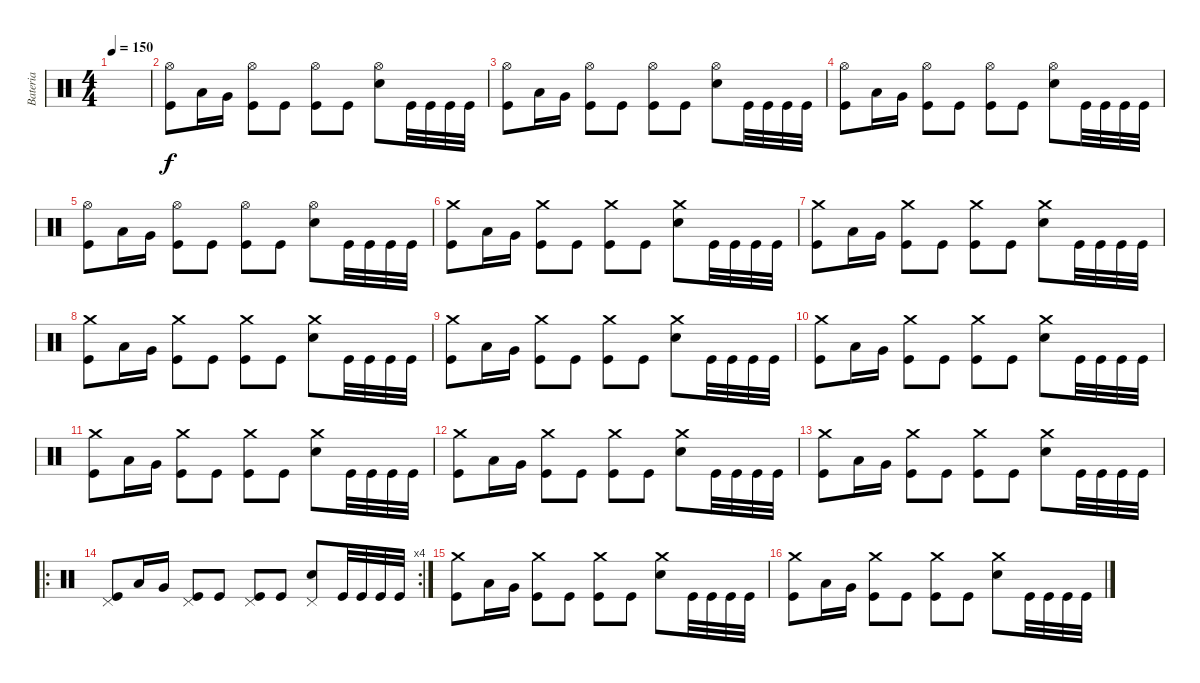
\track ("Bateria" "Bateria") {instrument percussion}
\staff {score}
\articulation defaults
\ts (4 4)
\tempo 150
\clef neutral
\ks c
|
("Hi-Hat (open)" "Kick (hit)").8 "Low Tom (hit)".16 "Very Low Tom (hit)".16 ("Hi-Hat (open)" "Kick (hit)").8 "Kick (hit)".8 ("Hi-Hat (open)" "Kick (hit)").8 "Kick (hit)".8 ("Hi-Hat (open)" "Electric Snare (hit)").8 "Kick (hit)".32 "Kick (hit)".32 "Kick (hit)".32 "Kick (hit)".32 |
("Hi-Hat (open)" "Kick (hit)").8 "Low Tom (hit)".16 "Very Low Tom (hit)".16 ("Hi-Hat (open)" "Kick (hit)").8 "Kick (hit)".8 ("Hi-Hat (open)" "Kick (hit)").8 "Kick (hit)".8 ("Hi-Hat (open)" "Electric Snare (hit)").8 "Kick (hit)".32 "Kick (hit)".32 "Kick (hit)".32 "Kick (hit)".32 |
("Hi-Hat (open)" "Kick (hit)").8 "Low Tom (hit)".16 "Very Low Tom (hit)".16 ("Hi-Hat (open)" "Kick (hit)").8 "Kick (hit)".8 ("Hi-Hat (open)" "Kick (hit)").8 "Kick (hit)".8 ("Hi-Hat (open)" "Electric Snare (hit)").8 "Kick (hit)".32 "Kick (hit)".32 "Kick (hit)".32 "Kick (hit)".32 |
("Hi-Hat (open)" "Kick (hit)").8 "Low Tom (hit)".16 "Very Low Tom (hit)".16 ("Hi-Hat (open)" "Kick (hit)").8 "Kick (hit)".8 ("Hi-Hat (open)" "Kick (hit)").8 "Kick (hit)".8 ("Hi-Hat (open)" "Electric Snare (hit)").8 "Kick (hit)".32 "Kick (hit)".32 "Kick (hit)".32 "Kick (hit)".32 |
("Crash medium (hit)" "Kick (hit)").8 "Low Tom (hit)".16 "Very Low Tom (hit)".16 ("Crash medium (hit)" "Kick (hit)").8 "Kick (hit)".8 ("Crash medium (hit)" "Kick (hit)").8 "Kick (hit)".8 ("Crash medium (hit)" "Electric Snare (hit)").8 "Kick (hit)".32 "Kick (hit)".32 "Kick (hit)".32 "Kick (hit)".32 |
("Crash medium (hit)" "Kick (hit)").8 "Low Tom (hit)".16 "Very Low Tom (hit)".16 ("Crash medium (hit)" "Kick (hit)").8 "Kick (hit)".8 ("Crash medium (hit)" "Kick (hit)").8 "Kick (hit)".8 ("Crash medium (hit)" "Electric Snare (hit)").8 "Kick (hit)".32 "Kick (hit)".32 "Kick (hit)".32 "Kick (hit)".32 |
("Crash medium (hit)" "Kick (hit)").8 "Low Tom (hit)".16 "Very Low Tom (hit)".16 ("Crash medium (hit)" "Kick (hit)").8 "Kick (hit)".8 ("Crash medium (hit)" "Kick (hit)").8 "Kick (hit)".8 ("Crash medium (hit)" "Electric Snare (hit)").8 "Kick (hit)".32 "Kick (hit)".32 "Kick (hit)".32 "Kick (hit)".32 |
("Crash medium (hit)" "Kick (hit)").8 "Low Tom (hit)".16 "Very Low Tom (hit)".16 ("Crash medium (hit)" "Kick (hit)").8 "Kick (hit)".8 ("Crash medium (hit)" "Kick (hit)").8 "Kick (hit)".8 ("Crash medium (hit)" "Electric Snare (hit)").8 "Kick (hit)".32 "Kick (hit)".32 "Kick (hit)".32 "Kick (hit)".32 |
("Crash medium (hit)" "Kick (hit)").8 "Low Tom (hit)".16 "Very Low Tom (hit)".16 ("Crash medium (hit)" "Kick (hit)").8 "Kick (hit)".8 ("Crash medium (hit)" "Kick (hit)").8 "Kick (hit)".8 ("Crash medium (hit)" "Electric Snare (hit)").8 "Kick (hit)".32 "Kick (hit)".32 "Kick (hit)".32 "Kick (hit)".32 |
("Crash medium (hit)" "Kick (hit)").8 "Low Tom (hit)".16 "Very Low Tom (hit)".16 ("Crash medium (hit)" "Kick (hit)").8 "Kick (hit)".8 ("Crash medium (hit)" "Kick (hit)").8 "Kick (hit)".8 ("Crash medium (hit)" "Electric Snare (hit)").8 "Kick (hit)".32 "Kick (hit)".32 "Kick (hit)".32 "Kick (hit)".32 |
("Crash medium (hit)" "Kick (hit)").8 "Low Tom (hit)".16 "Very Low Tom (hit)".16 ("Crash medium (hit)" "Kick (hit)").8 "Kick (hit)".8 ("Crash medium (hit)" "Kick (hit)").8 "Kick (hit)".8 ("Crash medium (hit)" "Electric Snare (hit)").8 "Kick (hit)".32 "Kick (hit)".32 "Kick (hit)".32 "Kick (hit)".32 |
("Crash medium (hit)" "Kick (hit)").8 "Low Tom (hit)".16 "Very Low Tom (hit)".16 ("Crash medium (hit)" "Kick (hit)").8 "Kick (hit)".8 ("Crash medium (hit)" "Kick (hit)").8 "Kick (hit)".8 ("Crash medium (hit)" "Electric Snare (hit)").8 "Kick (hit)".32 "Kick (hit)".32 "Kick (hit)".32 "Kick (hit)".32 |
\ro
\rc 4
("Pedal Hi-Hat (hit)" "Kick (hit)").8 "Low Tom (hit)".16 "Very Low Tom (hit)".16 ("Pedal Hi-Hat (hit)" "Kick (hit)").8 "Kick (hit)".8 ("Pedal Hi-Hat (hit)" "Kick (hit)").8 "Kick (hit)".8 ("Pedal Hi-Hat (hit)" "Electric Snare (hit)").8 "Kick (hit)".32 "Kick (hit)".32 "Kick (hit)".32 "Kick (hit)".32 |
("Crash medium (hit)" "Kick (hit)").8 "Low Tom (hit)".16 "Very Low Tom (hit)".16 ("Crash medium (hit)" "Kick (hit)").8 "Kick (hit)".8 ("Crash medium (hit)" "Kick (hit)").8 "Kick (hit)".8 ("Crash medium (hit)" "Electric Snare (hit)").8 "Kick (hit)".32 "Kick (hit)".32 "Kick (hit)".32 "Kick (hit)".32 |
("Crash medium (hit)" "Kick (hit)").8 "Low Tom (hit)".16 "Very Low Tom (hit)".16 ("Crash medium (hit)" "Kick (hit)").8 "Kick (hit)".8 ("Crash medium (hit)" "Kick (hit)").8 "Kick (hit)".8 ("Crash medium (hit)" "Electric Snare (hit)").8 "Kick (hit)".32 "Kick (hit)".32 "Kick (hit)".32 "Kick (hit)".32
